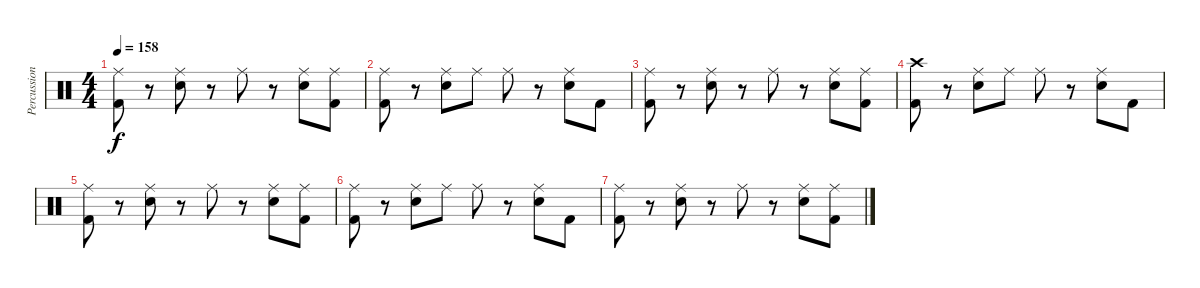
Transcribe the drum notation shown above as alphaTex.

\track ("Percussion" "Percussion") {instrument percussion bank 78}
\staff {score}
\articulation defaults
\ts (4 4)
\tempo 158
\clef neutral
\ks c
("Ride (middle)" "Kick (hit) 2").8{dy f} r.8 ("Ride (middle)" "Electric Snare (hit)").8 r.8 "Ride (middle)".8 r.8 ("Ride (middle)" "Electric Snare (hit)").8 ("Ride (middle)" "Kick (hit) 2").8 |
("Ride (middle)" "Kick (hit) 2").8 r.8 ("Ride (middle)" "Electric Snare (hit)").8 "Ride (middle)".8 "Ride (middle)".8 r.8 ("Ride (middle)" "Electric Snare (hit)").8 "Kick (hit) 2".8 |
("Ride (middle)" "Kick (hit) 2").8 r.8 ("Ride (middle)" "Electric Snare (hit)").8 r.8 "Ride (middle)".8 r.8 ("Ride (middle)" "Electric Snare (hit)").8 ("Ride (middle)" "Kick (hit) 2").8 |
("Crash high (hit)" "Kick (hit) 2").8 r.8 ("Ride (middle)" "Electric Snare (hit)").8 "Ride (middle)".8 "Ride (middle)".8 r.8 ("Ride (middle)" "Electric Snare (hit)").8 "Kick (hit) 2".8 |
("Ride (middle)" "Kick (hit) 2").8 r.8 ("Ride (middle)" "Electric Snare (hit)").8 r.8 "Ride (middle)".8 r.8 ("Ride (middle)" "Electric Snare (hit)").8 ("Ride (middle)" "Kick (hit) 2").8 |
("Ride (middle)" "Kick (hit) 2").8 r.8 ("Ride (middle)" "Electric Snare (hit)").8 "Ride (middle)".8 "Ride (middle)".8 r.8 ("Ride (middle)" "Electric Snare (hit)").8 "Kick (hit) 2".8 |
("Ride (middle)" "Kick (hit) 2").8 r.8 ("Ride (middle)" "Electric Snare (hit)").8 r.8 "Ride (middle)".8 r.8 ("Ride (middle)" "Electric Snare (hit)").8 ("Ride (middle)" "Kick (hit) 2").8
